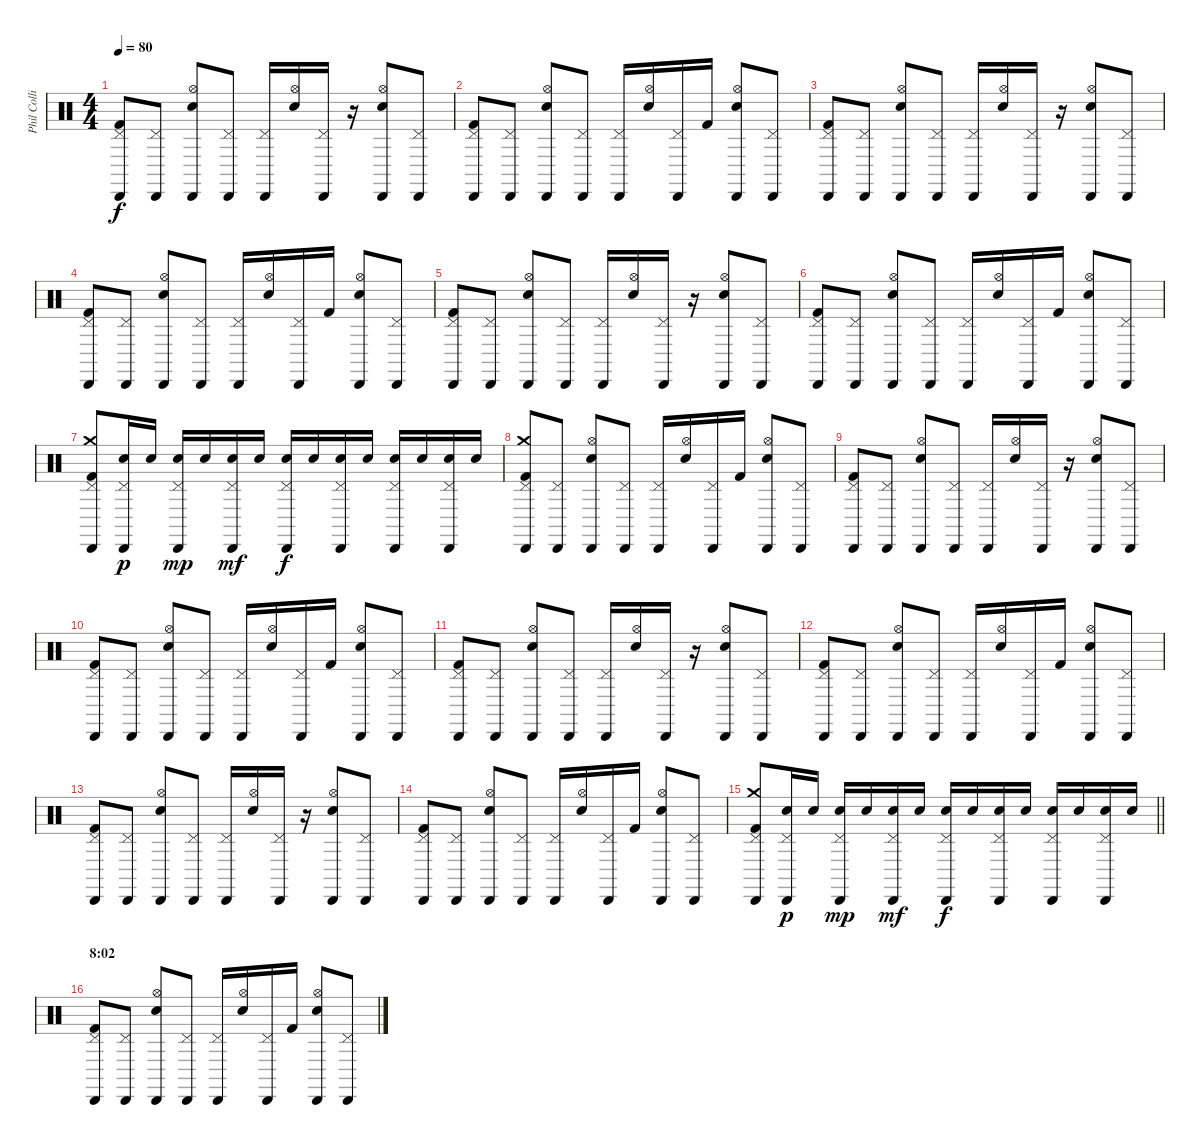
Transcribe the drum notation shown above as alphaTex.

\track ("Phil Collins (drums)" "Phil Colli") {instrument percussion}
\staff {score}
\articulation defaults
\ts (4 4)
\tempo 80
\clef neutral
\ks c
("Cabasa (hit)" "Pedal Hi-Hat (hit)" "Kick (hit) 2").8{dy f} ("Cabasa (hit)" "Pedal Hi-Hat (hit)").8 ("Cabasa (hit)" "Hi-Hat (open)" "Electric Snare (hit)").8 ("Cabasa (hit)" "Pedal Hi-Hat (hit)").8 ("Cabasa (hit)" "Pedal Hi-Hat (hit)").16 ("Hi-Hat (open)" "Electric Snare (hit)").16 ("Cabasa (hit)" "Pedal Hi-Hat (hit)").16 r.16 ("Cabasa (hit)" "Hi-Hat (open)" "Electric Snare (hit)").8 ("Cabasa (hit)" "Pedal Hi-Hat (hit)").8 |
("Cabasa (hit)" "Pedal Hi-Hat (hit)" "Kick (hit) 2").8 ("Cabasa (hit)" "Pedal Hi-Hat (hit)").8 ("Cabasa (hit)" "Hi-Hat (open)" "Electric Snare (hit)").8 ("Cabasa (hit)" "Pedal Hi-Hat (hit)").8 ("Cabasa (hit)" "Pedal Hi-Hat (hit)").16 ("Hi-Hat (open)" "Electric Snare (hit)").16 ("Cabasa (hit)" "Pedal Hi-Hat (hit)").16 "Kick (hit) 2".16 ("Cabasa (hit)" "Hi-Hat (open)" "Electric Snare (hit)").8 ("Cabasa (hit)" "Pedal Hi-Hat (hit)").8 |
("Cabasa (hit)" "Pedal Hi-Hat (hit)" "Kick (hit) 2").8 ("Cabasa (hit)" "Pedal Hi-Hat (hit)").8 ("Cabasa (hit)" "Hi-Hat (open)" "Electric Snare (hit)").8 ("Cabasa (hit)" "Pedal Hi-Hat (hit)").8 ("Cabasa (hit)" "Pedal Hi-Hat (hit)").16 ("Hi-Hat (open)" "Electric Snare (hit)").16 ("Cabasa (hit)" "Pedal Hi-Hat (hit)").16 r.16 ("Cabasa (hit)" "Hi-Hat (open)" "Electric Snare (hit)").8 ("Cabasa (hit)" "Pedal Hi-Hat (hit)").8 |
("Cabasa (hit)" "Pedal Hi-Hat (hit)" "Kick (hit) 2").8 ("Cabasa (hit)" "Pedal Hi-Hat (hit)").8 ("Cabasa (hit)" "Hi-Hat (open)" "Electric Snare (hit)").8 ("Cabasa (hit)" "Pedal Hi-Hat (hit)").8 ("Cabasa (hit)" "Pedal Hi-Hat (hit)").16 ("Hi-Hat (open)" "Electric Snare (hit)").16 ("Cabasa (hit)" "Pedal Hi-Hat (hit)").16 "Kick (hit) 2".16 ("Cabasa (hit)" "Hi-Hat (open)" "Electric Snare (hit)").8 ("Cabasa (hit)" "Pedal Hi-Hat (hit)").8 |
("Cabasa (hit)" "Pedal Hi-Hat (hit)" "Kick (hit) 2").8 ("Cabasa (hit)" "Pedal Hi-Hat (hit)").8 ("Cabasa (hit)" "Hi-Hat (open)" "Electric Snare (hit)").8 ("Cabasa (hit)" "Pedal Hi-Hat (hit)").8 ("Cabasa (hit)" "Pedal Hi-Hat (hit)").16 ("Hi-Hat (open)" "Electric Snare (hit)").16 ("Cabasa (hit)" "Pedal Hi-Hat (hit)").16 r.16 ("Cabasa (hit)" "Hi-Hat (open)" "Electric Snare (hit)").8 ("Cabasa (hit)" "Pedal Hi-Hat (hit)").8 |
("Cabasa (hit)" "Pedal Hi-Hat (hit)" "Kick (hit) 2").8 ("Cabasa (hit)" "Pedal Hi-Hat (hit)").8 ("Cabasa (hit)" "Hi-Hat (open)" "Electric Snare (hit)").8 ("Cabasa (hit)" "Pedal Hi-Hat (hit)").8 ("Cabasa (hit)" "Pedal Hi-Hat (hit)").16 ("Hi-Hat (open)" "Electric Snare (hit)").16 ("Cabasa (hit)" "Pedal Hi-Hat (hit)").16 "Kick (hit) 2".16 ("Cabasa (hit)" "Hi-Hat (open)" "Electric Snare (hit)").8 ("Cabasa (hit)" "Pedal Hi-Hat (hit)").8 |
("Crash medium (hit)" "Cabasa (hit)" "Pedal Hi-Hat (hit)" "Kick (hit) 2").8 ("Cabasa (hit)" "Pedal Hi-Hat (hit)" "Electric Snare (hit)").16{dy p} "Electric Snare (hit)".16 ("Cabasa (hit)" "Pedal Hi-Hat (hit)" "Electric Snare (hit)").16{dy mp} "Electric Snare (hit)".16 ("Cabasa (hit)" "Pedal Hi-Hat (hit)" "Electric Snare (hit)").16{dy mf} "Electric Snare (hit)".16 ("Cabasa (hit)" "Pedal Hi-Hat (hit)" "Electric Snare (hit)").16{dy f} "Electric Snare (hit)".16 ("Cabasa (hit)" "Pedal Hi-Hat (hit)" "Electric Snare (hit)").16 "Electric Snare (hit)".16 ("Cabasa (hit)" "Pedal Hi-Hat (hit)" "Electric Snare (hit)").16 "Electric Snare (hit)".16 ("Cabasa (hit)" "Pedal Hi-Hat (hit)" "Electric Snare (hit)").16 "Electric Snare (hit)".16 |
("Crash medium (hit)" "Cabasa (hit)" "Pedal Hi-Hat (hit)" "Kick (hit) 2").8 ("Cabasa (hit)" "Pedal Hi-Hat (hit)").8 ("Cabasa (hit)" "Hi-Hat (open)" "Electric Snare (hit)").8 ("Cabasa (hit)" "Pedal Hi-Hat (hit)").8 ("Cabasa (hit)" "Pedal Hi-Hat (hit)").16 ("Hi-Hat (open)" "Electric Snare (hit)").16 ("Cabasa (hit)" "Pedal Hi-Hat (hit)").16 "Kick (hit) 2".16 ("Cabasa (hit)" "Hi-Hat (open)" "Electric Snare (hit)").8 ("Cabasa (hit)" "Pedal Hi-Hat (hit)").8 |
("Cabasa (hit)" "Pedal Hi-Hat (hit)" "Kick (hit) 2").8 ("Cabasa (hit)" "Pedal Hi-Hat (hit)").8 ("Cabasa (hit)" "Hi-Hat (open)" "Electric Snare (hit)").8 ("Cabasa (hit)" "Pedal Hi-Hat (hit)").8 ("Cabasa (hit)" "Pedal Hi-Hat (hit)").16 ("Hi-Hat (open)" "Electric Snare (hit)").16 ("Cabasa (hit)" "Pedal Hi-Hat (hit)").16 r.16 ("Cabasa (hit)" "Hi-Hat (open)" "Electric Snare (hit)").8 ("Cabasa (hit)" "Pedal Hi-Hat (hit)").8 |
("Cabasa (hit)" "Pedal Hi-Hat (hit)" "Kick (hit) 2").8 ("Cabasa (hit)" "Pedal Hi-Hat (hit)").8 ("Cabasa (hit)" "Hi-Hat (open)" "Electric Snare (hit)").8 ("Cabasa (hit)" "Pedal Hi-Hat (hit)").8 ("Cabasa (hit)" "Pedal Hi-Hat (hit)").16 ("Hi-Hat (open)" "Electric Snare (hit)").16 ("Cabasa (hit)" "Pedal Hi-Hat (hit)").16 "Kick (hit) 2".16 ("Cabasa (hit)" "Hi-Hat (open)" "Electric Snare (hit)").8 ("Cabasa (hit)" "Pedal Hi-Hat (hit)").8 |
("Cabasa (hit)" "Pedal Hi-Hat (hit)" "Kick (hit) 2").8 ("Cabasa (hit)" "Pedal Hi-Hat (hit)").8 ("Cabasa (hit)" "Hi-Hat (open)" "Electric Snare (hit)").8 ("Cabasa (hit)" "Pedal Hi-Hat (hit)").8 ("Cabasa (hit)" "Pedal Hi-Hat (hit)").16 ("Hi-Hat (open)" "Electric Snare (hit)").16 ("Cabasa (hit)" "Pedal Hi-Hat (hit)").16 r.16 ("Cabasa (hit)" "Hi-Hat (open)" "Electric Snare (hit)").8 ("Cabasa (hit)" "Pedal Hi-Hat (hit)").8 |
("Cabasa (hit)" "Pedal Hi-Hat (hit)" "Kick (hit) 2").8 ("Cabasa (hit)" "Pedal Hi-Hat (hit)").8 ("Cabasa (hit)" "Hi-Hat (open)" "Electric Snare (hit)").8 ("Cabasa (hit)" "Pedal Hi-Hat (hit)").8 ("Cabasa (hit)" "Pedal Hi-Hat (hit)").16 ("Hi-Hat (open)" "Electric Snare (hit)").16 ("Cabasa (hit)" "Pedal Hi-Hat (hit)").16 "Kick (hit) 2".16 ("Cabasa (hit)" "Hi-Hat (open)" "Electric Snare (hit)").8 ("Cabasa (hit)" "Pedal Hi-Hat (hit)").8 |
("Cabasa (hit)" "Pedal Hi-Hat (hit)" "Kick (hit) 2").8 ("Cabasa (hit)" "Pedal Hi-Hat (hit)").8 ("Cabasa (hit)" "Hi-Hat (open)" "Electric Snare (hit)").8 ("Cabasa (hit)" "Pedal Hi-Hat (hit)").8 ("Cabasa (hit)" "Pedal Hi-Hat (hit)").16 ("Hi-Hat (open)" "Electric Snare (hit)").16 ("Cabasa (hit)" "Pedal Hi-Hat (hit)").16 r.16 ("Cabasa (hit)" "Hi-Hat (open)" "Electric Snare (hit)").8 ("Cabasa (hit)" "Pedal Hi-Hat (hit)").8 |
("Cabasa (hit)" "Pedal Hi-Hat (hit)" "Kick (hit) 2").8 ("Cabasa (hit)" "Pedal Hi-Hat (hit)").8 ("Cabasa (hit)" "Hi-Hat (open)" "Electric Snare (hit)").8 ("Cabasa (hit)" "Pedal Hi-Hat (hit)").8 ("Cabasa (hit)" "Pedal Hi-Hat (hit)").16 ("Hi-Hat (open)" "Electric Snare (hit)").16 ("Cabasa (hit)" "Pedal Hi-Hat (hit)").16 "Kick (hit) 2".16 ("Cabasa (hit)" "Hi-Hat (open)" "Electric Snare (hit)").8 ("Cabasa (hit)" "Pedal Hi-Hat (hit)").8 |
\barLineRight lightlight
("Crash medium (hit)" "Cabasa (hit)" "Pedal Hi-Hat (hit)" "Kick (hit) 2").8 ("Cabasa (hit)" "Pedal Hi-Hat (hit)" "Electric Snare (hit)").16{dy p} "Electric Snare (hit)".16 ("Cabasa (hit)" "Pedal Hi-Hat (hit)" "Electric Snare (hit)").16{dy mp} "Electric Snare (hit)".16 ("Cabasa (hit)" "Pedal Hi-Hat (hit)" "Electric Snare (hit)").16{dy mf} "Electric Snare (hit)".16 ("Cabasa (hit)" "Pedal Hi-Hat (hit)" "Electric Snare (hit)").16{dy f} "Electric Snare (hit)".16 ("Cabasa (hit)" "Pedal Hi-Hat (hit)" "Electric Snare (hit)").16 "Electric Snare (hit)".16 ("Cabasa (hit)" "Pedal Hi-Hat (hit)" "Electric Snare (hit)").16 "Electric Snare (hit)".16 ("Cabasa (hit)" "Pedal Hi-Hat (hit)" "Electric Snare (hit)").16 "Electric Snare (hit)".16 |
\section ("" "8:02")
("Cabasa (hit)" "Pedal Hi-Hat (hit)" "Kick (hit) 2").8 ("Cabasa (hit)" "Pedal Hi-Hat (hit)").8 ("Cabasa (hit)" "Hi-Hat (open)" "Electric Snare (hit)").8 ("Cabasa (hit)" "Pedal Hi-Hat (hit)").8 ("Cabasa (hit)" "Pedal Hi-Hat (hit)").16 ("Hi-Hat (open)" "Electric Snare (hit)").16 ("Cabasa (hit)" "Pedal Hi-Hat (hit)").16 "Kick (hit) 2".16 ("Cabasa (hit)" "Hi-Hat (open)" "Electric Snare (hit)").8 ("Cabasa (hit)" "Pedal Hi-Hat (hit)").8
